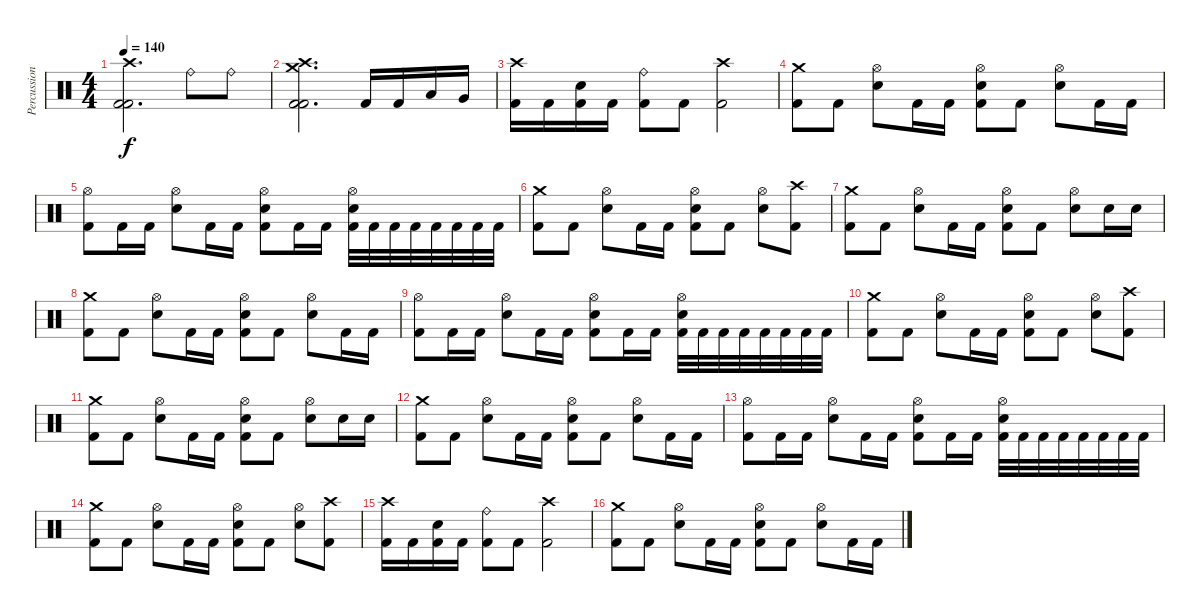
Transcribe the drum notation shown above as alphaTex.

\track ("Percussion" "Percussion") {instrument percussion}
\staff {score}
\articulation defaults
\ts (4 4)
\tempo 140
\clef neutral
\ks c
("Crash high (hit)" "Kick (hit) 2" "Kick (hit) 2").2{d dy f} "Ride (bell)".8 "Ride (bell)".8 |
("Crash medium (hit)" "Crash high (hit)" "Kick (hit) 2" "Kick (hit) 2").2{d} "Kick (hit) 2".16 "Kick (hit) 2".16 "Low Tom (hit)".16 "Very Low Tom (hit)".16 |
("Crash high (hit)" "Kick (hit) 2").16 "Kick (hit) 2".16 ("Electric Snare (hit)" "Kick (hit) 2").16 "Kick (hit) 2".16 ("Ride (bell)" "Kick (hit) 2").8 "Kick (hit) 2".8 ("Crash high (hit)" "Kick (hit) 2").2 |
("Crash medium (hit)" "Kick (hit) 2").8 "Kick (hit) 2".8 ("Hi-Hat (open)" "Electric Snare (hit)").8 "Kick (hit) 2".16 "Kick (hit) 2".16 ("Hi-Hat (open)" "Electric Snare (hit)" "Kick (hit) 2").8 "Kick (hit) 2".8 ("Hi-Hat (open)" "Electric Snare (hit)").8 "Kick (hit) 2".16 "Kick (hit) 2".16 |
("Hi-Hat (open)" "Kick (hit) 2").8 "Kick (hit) 2".16 "Kick (hit) 2".16 ("Hi-Hat (open)" "Electric Snare (hit)").8 "Kick (hit) 2".16 "Kick (hit) 2".16 ("Hi-Hat (open)" "Electric Snare (hit)" "Kick (hit) 2").8 "Kick (hit) 2".16 "Kick (hit) 2".16 ("Hi-Hat (open)" "Electric Snare (hit)" "Kick (hit) 2").32 "Kick (hit) 2".32 "Kick (hit) 2".32 "Kick (hit) 2".32 "Kick (hit) 2".32 "Kick (hit) 2".32 "Kick (hit) 2".32 "Kick (hit) 2".32 |
("Crash medium (hit)" "Kick (hit) 2").8 "Kick (hit) 2".8 ("Hi-Hat (open)" "Electric Snare (hit)").8 "Kick (hit) 2".16 "Kick (hit) 2".16 ("Hi-Hat (open)" "Electric Snare (hit)" "Kick (hit) 2").8 "Kick (hit) 2".8 ("Hi-Hat (open)" "Electric Snare (hit)").8 ("Crash high (hit)" "Kick (hit) 2").8 |
("Crash medium (hit)" "Kick (hit) 2").8 "Kick (hit) 2".8 ("Hi-Hat (open)" "Electric Snare (hit)").8 "Kick (hit) 2".16 "Kick (hit) 2".16 ("Hi-Hat (open)" "Electric Snare (hit)" "Kick (hit) 2").8 "Kick (hit) 2".8 ("Hi-Hat (open)" "Electric Snare (hit)").8 "Electric Snare (hit)".16 "Electric Snare (hit)".16 |
("Crash medium (hit)" "Kick (hit) 2").8 "Kick (hit) 2".8 ("Hi-Hat (open)" "Electric Snare (hit)").8 "Kick (hit) 2".16 "Kick (hit) 2".16 ("Hi-Hat (open)" "Electric Snare (hit)" "Kick (hit) 2").8 "Kick (hit) 2".8 ("Hi-Hat (open)" "Electric Snare (hit)").8 "Kick (hit) 2".16 "Kick (hit) 2".16 |
("Hi-Hat (open)" "Kick (hit) 2").8 "Kick (hit) 2".16 "Kick (hit) 2".16 ("Hi-Hat (open)" "Electric Snare (hit)").8 "Kick (hit) 2".16 "Kick (hit) 2".16 ("Hi-Hat (open)" "Electric Snare (hit)" "Kick (hit) 2").8 "Kick (hit) 2".16 "Kick (hit) 2".16 ("Hi-Hat (open)" "Electric Snare (hit)" "Kick (hit) 2").32 "Kick (hit) 2".32 "Kick (hit) 2".32 "Kick (hit) 2".32 "Kick (hit) 2".32 "Kick (hit) 2".32 "Kick (hit) 2".32 "Kick (hit) 2".32 |
("Crash medium (hit)" "Kick (hit) 2").8 "Kick (hit) 2".8 ("Hi-Hat (open)" "Electric Snare (hit)").8 "Kick (hit) 2".16 "Kick (hit) 2".16 ("Hi-Hat (open)" "Electric Snare (hit)" "Kick (hit) 2").8 "Kick (hit) 2".8 ("Hi-Hat (open)" "Electric Snare (hit)").8 ("Crash high (hit)" "Kick (hit) 2").8 |
("Crash medium (hit)" "Kick (hit) 2").8 "Kick (hit) 2".8 ("Hi-Hat (open)" "Electric Snare (hit)").8 "Kick (hit) 2".16 "Kick (hit) 2".16 ("Hi-Hat (open)" "Electric Snare (hit)" "Kick (hit) 2").8 "Kick (hit) 2".8 ("Hi-Hat (open)" "Electric Snare (hit)").8 "Electric Snare (hit)".16 "Electric Snare (hit)".16 |
("Crash medium (hit)" "Kick (hit) 2").8 "Kick (hit) 2".8 ("Hi-Hat (open)" "Electric Snare (hit)").8 "Kick (hit) 2".16 "Kick (hit) 2".16 ("Hi-Hat (open)" "Electric Snare (hit)" "Kick (hit) 2").8 "Kick (hit) 2".8 ("Hi-Hat (open)" "Electric Snare (hit)").8 "Kick (hit) 2".16 "Kick (hit) 2".16 |
("Hi-Hat (open)" "Kick (hit) 2").8 "Kick (hit) 2".16 "Kick (hit) 2".16 ("Hi-Hat (open)" "Electric Snare (hit)").8 "Kick (hit) 2".16 "Kick (hit) 2".16 ("Hi-Hat (open)" "Electric Snare (hit)" "Kick (hit) 2").8 "Kick (hit) 2".16 "Kick (hit) 2".16 ("Hi-Hat (open)" "Electric Snare (hit)" "Kick (hit) 2").32 "Kick (hit) 2".32 "Kick (hit) 2".32 "Kick (hit) 2".32 "Kick (hit) 2".32 "Kick (hit) 2".32 "Kick (hit) 2".32 "Kick (hit) 2".32 |
("Crash medium (hit)" "Kick (hit) 2").8 "Kick (hit) 2".8 ("Hi-Hat (open)" "Electric Snare (hit)").8 "Kick (hit) 2".16 "Kick (hit) 2".16 ("Hi-Hat (open)" "Electric Snare (hit)" "Kick (hit) 2").8 "Kick (hit) 2".8 ("Hi-Hat (open)" "Electric Snare (hit)").8 ("Crash high (hit)" "Kick (hit) 2").8 |
("Crash high (hit)" "Kick (hit) 2").16 "Kick (hit) 2".16 ("Electric Snare (hit)" "Kick (hit) 2").16 "Kick (hit) 2".16 ("Ride (bell)" "Kick (hit) 2").8 "Kick (hit) 2".8 ("Crash high (hit)" "Kick (hit) 2").2 |
("Crash medium (hit)" "Kick (hit) 2").8 "Kick (hit) 2".8 ("Hi-Hat (open)" "Electric Snare (hit)").8 "Kick (hit) 2".16 "Kick (hit) 2".16 ("Hi-Hat (open)" "Electric Snare (hit)" "Kick (hit) 2").8 "Kick (hit) 2".8 ("Hi-Hat (open)" "Electric Snare (hit)").8 "Kick (hit) 2".16 "Kick (hit) 2".16
